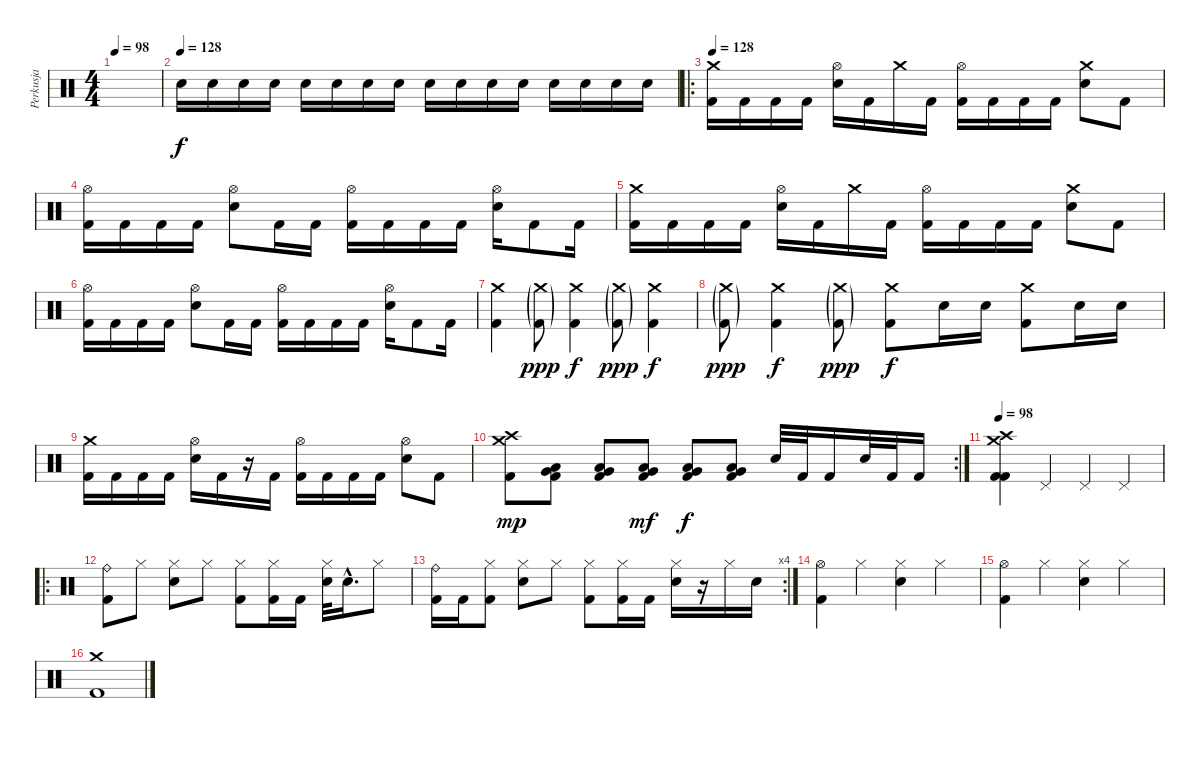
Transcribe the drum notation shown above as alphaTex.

\track ("Perkusja" "Perkusja") {instrument percussion}
\staff {score}
\articulation defaults
\ts (4 4)
\tempo 98
\clef neutral
\ks c
|
\tempo (128)
"Snare (hit) 2".16 "Snare (hit) 2".16 "Snare (hit) 2".16 "Snare (hit) 2".16 "Snare (hit) 2".16 "Snare (hit) 2".16 "Snare (hit) 2".16 "Snare (hit) 2".16 "Snare (hit) 2".16 "Snare (hit) 2".16 "Snare (hit) 2".16 "Snare (hit) 2".16 "Snare (hit) 2".16 "Snare (hit) 2".16 "Snare (hit) 2".16 "Snare (hit) 2".16 |
\ro
\tempo 128
("Crash medium (hit)" "Kick (hit) 2").16 "Kick (hit) 2".16 "Kick (hit) 2".16 "Kick (hit) 2".16 ("Hi-Hat (open)" "Snare (hit) 2").16 "Kick (hit) 2".16 "Crash medium (hit)".16 "Kick (hit) 2".16 ("Hi-Hat (open)" "Kick (hit) 2").16 "Kick (hit) 2".16 "Kick (hit) 2".16 "Kick (hit) 2".16 ("Crash medium (hit)" "Snare (hit) 2").8 "Kick (hit) 2".8 |
("Hi-Hat (open)" "Kick (hit) 2").16 "Kick (hit) 2".16 "Kick (hit) 2".16 "Kick (hit) 2".16 ("Hi-Hat (open)" "Snare (hit) 2").8 "Kick (hit) 2".16 "Kick (hit) 2".16 ("Hi-Hat (open)" "Kick (hit) 2").16 "Kick (hit) 2".16 "Kick (hit) 2".16 "Kick (hit) 2".16 ("Hi-Hat (open)" "Snare (hit) 2").16 "Kick (hit) 2".8 "Kick (hit) 2".16 |
("Crash medium (hit)" "Kick (hit) 2").16 "Kick (hit) 2".16 "Kick (hit) 2".16 "Kick (hit) 2".16 ("Hi-Hat (open)" "Snare (hit) 2").16 "Kick (hit) 2".16 "Crash medium (hit)".16 "Kick (hit) 2".16 ("Hi-Hat (open)" "Kick (hit) 2").16 "Kick (hit) 2".16 "Kick (hit) 2".16 "Kick (hit) 2".16 ("Crash medium (hit)" "Snare (hit) 2").8 "Kick (hit) 2".8 |
("Hi-Hat (open)" "Kick (hit) 2").16 "Kick (hit) 2".16 "Kick (hit) 2".16 "Kick (hit) 2".16 ("Hi-Hat (open)" "Snare (hit) 2").8 "Kick (hit) 2".16 "Kick (hit) 2".16 ("Hi-Hat (open)" "Kick (hit) 2").16 "Kick (hit) 2".16 "Kick (hit) 2".16 "Kick (hit) 2".16 ("Hi-Hat (open)" "Snare (hit) 2").16 "Kick (hit) 2".8 "Kick (hit) 2".16 |
("Crash medium (hit)" "Kick (hit) 2").4 ("Crash medium (hit)"{g} "Kick (hit) 2"{g}).8{dy ppp} ("Crash medium (hit)" "Kick (hit) 2").4{dy f} ("Crash medium (hit)"{g} "Kick (hit) 2"{g}).8{dy ppp} ("Crash medium (hit)" "Kick (hit) 2").4{dy f} |
("Crash medium (hit)"{g} "Kick (hit) 2"{g}).8{dy ppp} ("Crash medium (hit)" "Kick (hit) 2").4{dy f} ("Crash medium (hit)"{g} "Kick (hit) 2"{g}).8{dy ppp} ("Crash medium (hit)" "Kick (hit) 2").8{dy f} "Snare (hit) 2".16 "Snare (hit) 2".16 ("Crash medium (hit)" "Kick (hit) 2").8 "Snare (hit) 2".16 "Snare (hit) 2".16 |
("Crash medium (hit)" "Kick (hit) 2").16 "Kick (hit) 2".16 "Kick (hit) 2".16 "Kick (hit) 2".16 ("Hi-Hat (open)" "Snare (hit) 2").16 "Kick (hit) 2".16 r.16 "Kick (hit) 2".16 ("Hi-Hat (open)" "Kick (hit) 2").16 "Kick (hit) 2".16 "Kick (hit) 2".16 "Kick (hit) 2".16 ("Hi-Hat (open)" "Snare (hit) 2").8 "Kick (hit) 2".8 |
\rc 2
("Crash medium (hit)" "Crash high (hit)" "Kick (hit) 2").8{dy mp} ("Low Tom (hit)" "Very Low Tom (hit)" "Kick (hit) 2").8 ("Low Tom (hit)" "Very Low Tom (hit)" "Kick (hit) 2").8 ("Low Tom (hit)" "Very Low Tom (hit)" "Kick (hit) 2").8{dy mf} ("Low Tom (hit)" "Very Low Tom (hit)" "Kick (hit) 2").8{dy f} ("Low Tom (hit)" "Very Low Tom (hit)" "Kick (hit) 2").8 "Snare (hit) 2".32 "Kick (hit) 2".32 "Kick (hit) 2".16 "Snare (hit) 2".32 "Kick (hit) 2".32 "Kick (hit) 2".16 |
\tempo 98
("Crash medium (hit)" "Crash high (hit)" "Kick (hit) 2" "Kick (hit) 2").4 "Pedal Hi-Hat (hit)".4 "Pedal Hi-Hat (hit)".4 "Pedal Hi-Hat (hit)".4 |
\ro
("Ride (bell)" "Kick (hit) 2").8 "Hi-Hat (closed)".8 ("Hi-Hat (closed)" "Snare (hit) 2").8 "Hi-Hat (closed)".8 ("Hi-Hat (closed)" "Kick (hit) 2").8 ("Hi-Hat (closed)" "Kick (hit) 2").16 "Kick (hit) 2".16 ("Hi-Hat (closed)" "Snare (hit) 2").32 "Snare (hit) 2"{hac}.16{d} "Hi-Hat (closed)".8 |
\rc 4
("Ride (bell)" "Kick (hit) 2").16 "Kick (hit) 2".16 ("Hi-Hat (closed)" "Kick (hit) 2").8 ("Hi-Hat (closed)" "Snare (hit) 2").8 "Hi-Hat (closed)".8 ("Hi-Hat (closed)" "Kick (hit) 2").8 ("Hi-Hat (closed)" "Kick (hit) 2").16 "Kick (hit) 2".16 ("Hi-Hat (closed)" "Snare (hit) 2").16 r.16 "Hi-Hat (closed)".16 "Snare (hit) 2".16 |
("Hi-Hat (open)" "Kick (hit) 2").4 "Hi-Hat (closed)".4 ("Hi-Hat (closed)" "Snare (hit) 2").4 "Hi-Hat (closed)".4 |
("Hi-Hat (open)" "Kick (hit) 2").4 "Hi-Hat (closed)".4 ("Hi-Hat (closed)" "Snare (hit) 2").4 "Hi-Hat (closed)".4 |
("Crash medium (hit)" "Kick (hit) 2").1
